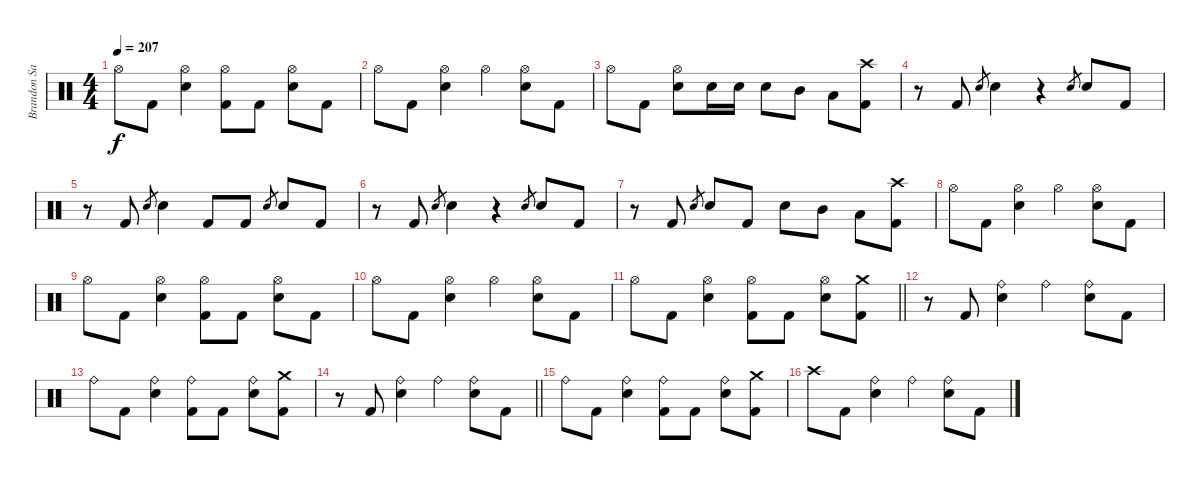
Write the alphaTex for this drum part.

\track ("Brandon Saller" "Brandon Sa") {instrument percussion}
\staff {score}
\articulation defaults
\ts (4 4)
\tempo 207
\clef neutral
\ks c "Hi-Hat (open)".8{dy f} "Kick (hit) 2".8
("Hi-Hat (open)" "Electric Snare (hit)").4 ("Hi-Hat (open)" "Kick (hit) 2").8 "Kick (hit) 2".8 ("Hi-Hat (open)" "Electric Snare (hit)").8 "Kick (hit) 2".8 |
"Hi-Hat (open)".8 "Kick (hit) 2".8 ("Hi-Hat (open)" "Electric Snare (hit)").4 "Hi-Hat (open)".4 ("Hi-Hat (open)" "Electric Snare (hit)").8 "Kick (hit) 2".8 |
"Hi-Hat (open)".8 "Kick (hit) 2".8 ("Hi-Hat (open)" "Electric Snare (hit)").8 "Electric Snare (hit)".16 "Electric Snare (hit)".16 "Electric Snare (hit)".8 "Mid Tom (hit)".8 "Low Tom (hit)".8 ("Crash high (hit)" "Kick (hit) 2").8 |
r.8 "Kick (hit) 2".8 "Electric Snare (hit)".8{gr} "Electric Snare (hit)".4 r.4 "Electric Snare (hit)".8{gr} "Electric Snare (hit)".8 "Kick (hit) 2".8 |
r.8 "Kick (hit) 2".8 "Electric Snare (hit)".8{gr} "Electric Snare (hit)".4 "Kick (hit) 2".8 "Kick (hit) 2".8 "Electric Snare (hit)".8{gr} "Electric Snare (hit)".8 "Kick (hit) 2".8 |
r.8 "Kick (hit) 2".8 "Electric Snare (hit)".8{gr} "Electric Snare (hit)".4 r.4 "Electric Snare (hit)".8{gr} "Electric Snare (hit)".8 "Kick (hit) 2".8 |
r.8 "Kick (hit) 2".8 "Electric Snare (hit)".8{gr} "Electric Snare (hit)".8 "Kick (hit) 2".8 "Snare (hit) 2".8 "Mid Tom (hit)".8 "Low Tom (hit)".8 ("Crash high (hit)" "Kick (hit) 2").8 |
"Hi-Hat (open)".8 "Kick (hit) 2".8 ("Hi-Hat (open)" "Electric Snare (hit)").4 "Hi-Hat (open)".4 ("Hi-Hat (open)" "Electric Snare (hit)").8 "Kick (hit) 2".8 |
"Hi-Hat (open)".8 "Kick (hit) 2".8 ("Hi-Hat (open)" "Electric Snare (hit)").4 ("Hi-Hat (open)" "Kick (hit) 2").8 "Kick (hit) 2".8 ("Hi-Hat (open)" "Electric Snare (hit)").8 "Kick (hit) 2".8 |
"Hi-Hat (open)".8 "Kick (hit) 2".8 ("Hi-Hat (open)" "Electric Snare (hit)").4 "Hi-Hat (open)".4 ("Hi-Hat (open)" "Electric Snare (hit)").8 "Kick (hit) 2".8 |
\barLineRight lightlight "Hi-Hat (open)".8 "Kick (hit) 2".8
("Hi-Hat (open)" "Electric Snare (hit)").4 ("Hi-Hat (open)" "Kick (hit) 2").8 "Kick (hit) 2".8 ("Hi-Hat (open)" "Electric Snare (hit)").8 ("Crash medium (hit)" "Kick (hit) 2").8 |
r.8 "Kick (hit) 2".8 ("Ride (bell)" "Electric Snare (hit)").4 "Ride (bell)".4 ("Ride (bell)" "Electric Snare (hit)").8 "Kick (hit) 2".8 |
"Ride (bell)".8 "Kick (hit) 2".8 ("Ride (bell)" "Electric Snare (hit)").4 ("Ride (bell)" "Kick (hit) 2").8 "Kick (hit) 2".8 ("Ride (bell)" "Electric Snare (hit)").8 ("Crash medium (hit)" "Kick (hit) 2").8 |
\barLineRight lightlight
r.8 "Kick (hit) 2".8 ("Ride (bell)" "Electric Snare (hit)").4 "Ride (bell)".4 ("Ride (bell)" "Electric Snare (hit)").8 "Kick (hit) 2".8 |
\section ("" "")
"Ride (bell)".8 "Kick (hit) 2".8 ("Ride (bell)" "Electric Snare (hit)").4 ("Ride (bell)" "Kick (hit) 2").8 "Kick (hit) 2".8 ("Ride (bell)" "Electric Snare (hit)").8 ("Crash medium (hit)" "Kick (hit) 2").8 |
"Crash high (hit)".8 "Kick (hit) 2".8 ("Ride (bell)" "Electric Snare (hit)").4 "Ride (bell)".4 ("Ride (bell)" "Electric Snare (hit)").8 "Kick (hit) 2".8
